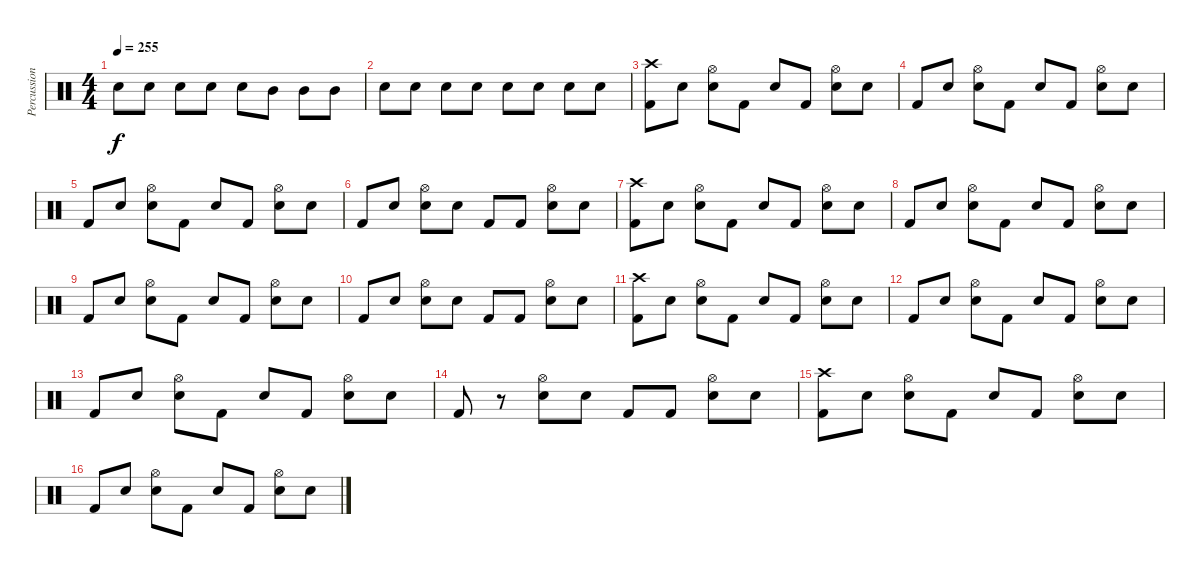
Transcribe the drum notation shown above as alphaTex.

\track ("Percussion" "Percussion") {instrument percussion}
\staff {score}
\articulation defaults
\ts (4 4)
\tempo 255
\clef neutral
\ks c "Snare (hit) 2"{x}.8{dy f} "Snare (hit) 2"{x}.8 "Snare (hit) 2".8 "Snare (hit) 2".8 "Snare (hit) 2".8 "Mid Tom (hit)".8 "Mid Tom (hit)".8 "Mid Tom (hit)".8
|
"Snare (hit) 2".8 "Snare (hit) 2".8 "Snare (hit) 2".8 "Snare (hit) 2".8 "Snare (hit) 2".8 "Snare (hit) 2".8 "Snare (hit) 2".8 "Snare (hit) 2".8 |
("Kick (hit) 2" "Crash high (hit)").8 "Snare (hit)"{x}.8 ("Snare (hit) 2" "Hi-Hat (open)").8 "Kick (hit) 2".8 "Snare (hit)"{x}.8 "Kick (hit) 2".8 ("Snare (hit) 2" "Hi-Hat (open)").8 "Snare (hit)"{x}.8 |
"Kick (hit) 2".8 "Snare (hit)"{x}.8 ("Snare (hit) 2" "Hi-Hat (open)").8 "Kick (hit) 2".8 "Snare (hit)"{x}.8 "Kick (hit) 2".8 ("Snare (hit) 2" "Hi-Hat (open)").8 "Snare (hit)"{x}.8 |
"Kick (hit) 2".8 "Snare (hit)"{x}.8 ("Snare (hit) 2" "Hi-Hat (open)").8 "Kick (hit) 2".8 "Snare (hit)"{x}.8 "Kick (hit) 2".8 ("Snare (hit) 2" "Hi-Hat (open)").8 "Snare (hit)"{x}.8 |
"Kick (hit) 2".8 "Snare (hit)"{x}.8 ("Snare (hit) 2" "Hi-Hat (open)").8 "Snare (hit)"{x}.8 "Kick (hit) 2".8 "Kick (hit) 2".8 ("Snare (hit) 2" "Hi-Hat (open)").8 "Snare (hit)"{x}.8 |
("Kick (hit) 2" "Crash high (hit)").8 "Snare (hit)"{x}.8 ("Snare (hit) 2" "Hi-Hat (open)").8 "Kick (hit) 2".8 "Snare (hit)"{x}.8 "Kick (hit) 2".8 ("Snare (hit) 2" "Hi-Hat (open)").8 "Snare (hit)"{x}.8 |
"Kick (hit) 2".8 "Snare (hit)"{x}.8 ("Snare (hit) 2" "Hi-Hat (open)").8 "Kick (hit) 2".8 "Snare (hit)"{x}.8 "Kick (hit) 2".8 ("Snare (hit) 2" "Hi-Hat (open)").8 "Snare (hit)"{x}.8 |
"Kick (hit) 2".8 "Snare (hit)"{x}.8 ("Snare (hit) 2" "Hi-Hat (open)").8 "Kick (hit) 2".8 "Snare (hit)"{x}.8 "Kick (hit) 2".8 ("Snare (hit) 2" "Hi-Hat (open)").8 "Snare (hit)"{x}.8 |
"Kick (hit) 2".8 "Snare (hit)"{x}.8 ("Snare (hit) 2" "Hi-Hat (open)").8 "Snare (hit)"{x}.8 "Kick (hit) 2".8 "Kick (hit) 2".8 ("Snare (hit) 2" "Hi-Hat (open)").8 "Snare (hit)"{x}.8 |
("Kick (hit) 2" "Crash high (hit)").8 "Snare (hit)"{x}.8 ("Snare (hit) 2" "Hi-Hat (open)").8 "Kick (hit) 2".8 "Snare (hit)"{x}.8 "Kick (hit) 2".8 ("Snare (hit) 2" "Hi-Hat (open)").8 "Snare (hit)"{x}.8 |
"Kick (hit) 2".8 "Snare (hit)"{x}.8 ("Snare (hit) 2" "Hi-Hat (open)").8 "Kick (hit) 2".8 "Snare (hit)"{x}.8 "Kick (hit) 2".8 ("Snare (hit) 2" "Hi-Hat (open)").8 "Snare (hit)"{x}.8 |
"Kick (hit) 2".8 "Snare (hit)"{x}.8 ("Snare (hit) 2" "Hi-Hat (open)").8 "Kick (hit) 2".8 "Snare (hit)"{x}.8 "Kick (hit) 2".8 ("Snare (hit) 2" "Hi-Hat (open)").8 "Snare (hit)"{x}.8 |
"Kick (hit) 2".8 r.8 ("Snare (hit) 2" "Hi-Hat (open)").8 "Snare (hit)"{x}.8 "Kick (hit) 2".8 "Kick (hit) 2".8 ("Snare (hit) 2" "Hi-Hat (open)").8 "Snare (hit)"{x}.8 |
("Kick (hit) 2" "Crash high (hit)").8 "Snare (hit)"{x}.8 ("Snare (hit) 2" "Hi-Hat (open)").8 "Kick (hit) 2".8 "Snare (hit)"{x}.8 "Kick (hit) 2".8 ("Snare (hit) 2" "Hi-Hat (open)").8 "Snare (hit)"{x}.8 |
"Kick (hit) 2".8 "Snare (hit)"{x}.8 ("Snare (hit) 2" "Hi-Hat (open)").8 "Kick (hit) 2".8 "Snare (hit)"{x}.8 "Kick (hit) 2".8 ("Snare (hit) 2" "Hi-Hat (open)").8 "Snare (hit)"{x}.8
